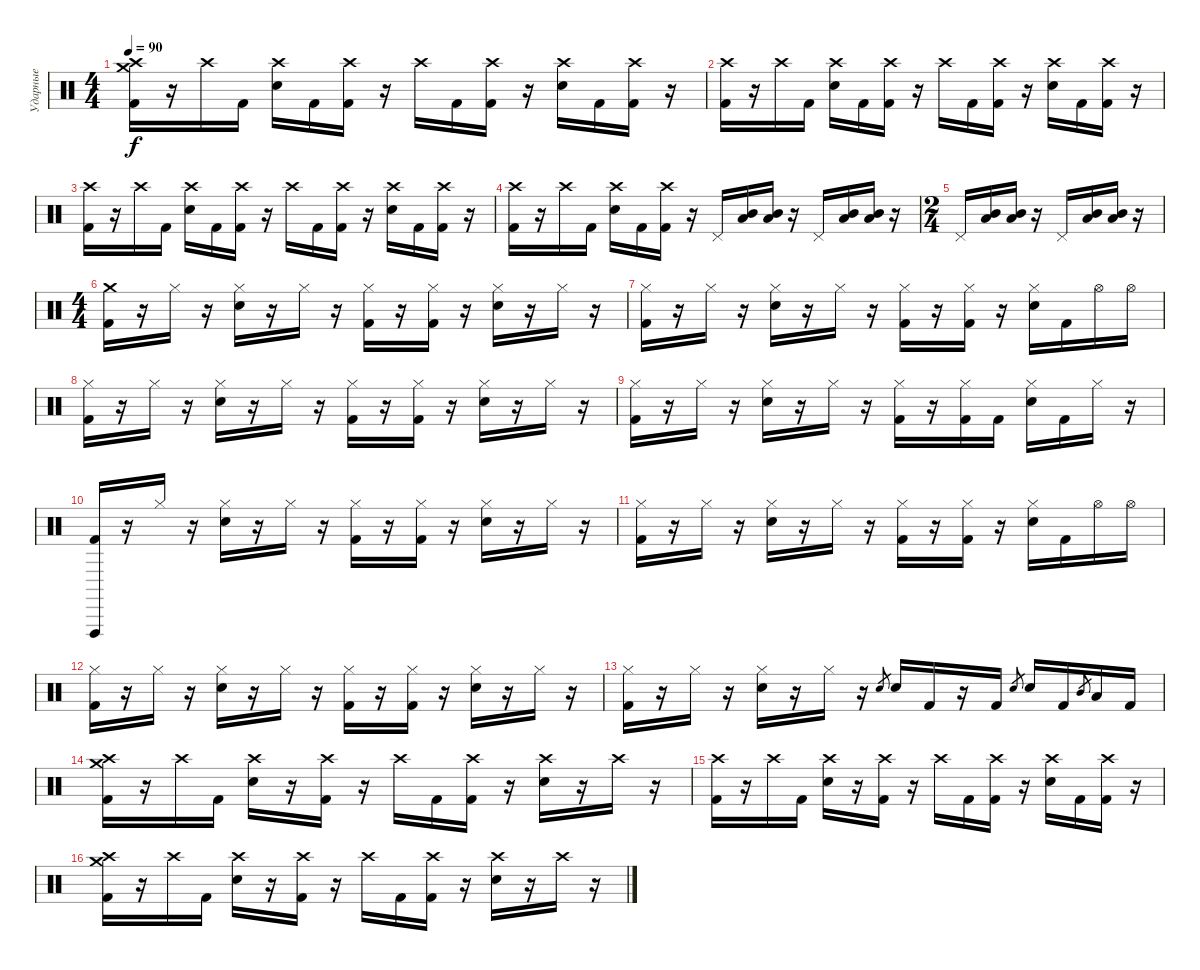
\track ("Ударные" "Ударные") {instrument percussion}
\staff {score}
\articulation defaults
\ts (4 4)
\tempo 90
\clef neutral
\ks c
("Crash high (hit)" "Crash medium (hit)" "Kick (hit) 2").16{dy f} r.16 "Crash high (hit)".16 "Kick (hit) 2".16 ("Crash high (hit)" "Electric Snare (hit)").16 "Kick (hit) 2".16 ("Crash high (hit)" "Kick (hit) 2").16 r.16 "Crash high (hit)".16 "Kick (hit) 2".16 ("Crash high (hit)" "Kick (hit) 2").16 r.16 ("Crash high (hit)" "Electric Snare (hit)").16 "Kick (hit) 2".16 ("Crash high (hit)" "Kick (hit) 2").16 r.16 |
("Crash high (hit)" "Kick (hit) 2").16 r.16 "Crash high (hit)".16 "Kick (hit) 2".16 ("Crash high (hit)" "Electric Snare (hit)").16 "Kick (hit) 2".16 ("Crash high (hit)" "Kick (hit) 2").16 r.16 "Crash high (hit)".16 "Kick (hit) 2".16 ("Crash high (hit)" "Kick (hit) 2").16 r.16 ("Crash high (hit)" "Electric Snare (hit)").16 "Kick (hit) 2".16 ("Crash high (hit)" "Kick (hit) 2").16 r.16 |
("Crash high (hit)" "Kick (hit) 2").16 r.16 "Crash high (hit)".16 "Kick (hit) 2".16 ("Crash high (hit)" "Electric Snare (hit)").16 "Kick (hit) 2".16 ("Crash high (hit)" "Kick (hit) 2").16 r.16 "Crash high (hit)".16 "Kick (hit) 2".16 ("Crash high (hit)" "Kick (hit) 2").16 r.16 ("Crash high (hit)" "Electric Snare (hit)").16 "Kick (hit) 2".16 ("Crash high (hit)" "Kick (hit) 2").16 r.16 |
("Crash high (hit)" "Kick (hit) 2").16 r.16 "Crash high (hit)".16 "Kick (hit) 2".16 ("Crash high (hit)" "Electric Snare (hit)").16 "Kick (hit) 2".16 ("Crash high (hit)" "Kick (hit) 2").16 r.16 "Pedal Hi-Hat (hit)".16 ("Mid Tom (hit)" "Low Tom (hit)").16 ("Mid Tom (hit)" "Low Tom (hit)").16 r.16 "Pedal Hi-Hat (hit)".16 ("Mid Tom (hit)" "Low Tom (hit)").16 ("Mid Tom (hit)" "Low Tom (hit)").16 r.16 |
\ts (2 4)
"Pedal Hi-Hat (hit)".16 ("Mid Tom (hit)" "Low Tom (hit)").16 ("Mid Tom (hit)" "Low Tom (hit)").16 r.16 "Pedal Hi-Hat (hit)".16 ("Mid Tom (hit)" "Low Tom (hit)").16 ("Mid Tom (hit)" "Low Tom (hit)").16 r.16 |
\ts (4 4)
("Crash medium (hit)" "Kick (hit) 2").16 r.16 "Hi-Hat (closed)".16 r.16 ("Hi-Hat (closed)" "Electric Snare (hit)").16 r.16 "Hi-Hat (closed)".16 r.16 ("Hi-Hat (closed)" "Kick (hit) 2").16 r.16 ("Hi-Hat (closed)" "Kick (hit) 2").16 r.16 ("Hi-Hat (closed)" "Electric Snare (hit)").16 r.16 "Hi-Hat (closed)".16 r.16 |
("Hi-Hat (closed)" "Kick (hit) 2").16 r.16 "Hi-Hat (closed)".16 r.16 ("Hi-Hat (closed)" "Electric Snare (hit)").16 r.16 "Hi-Hat (closed)".16 r.16 ("Hi-Hat (closed)" "Kick (hit) 2").16 r.16 ("Hi-Hat (closed)" "Kick (hit) 2").16 r.16 ("Hi-Hat (closed)" "Electric Snare (hit)").16 "Kick (hit) 2".16 "Hi-Hat (open)".16 "Hi-Hat (open)".16 |
("Hi-Hat (closed)" "Kick (hit) 2").16 r.16 "Hi-Hat (closed)".16 r.16 ("Hi-Hat (closed)" "Electric Snare (hit)").16 r.16 "Hi-Hat (closed)".16 r.16 ("Hi-Hat (closed)" "Kick (hit) 2").16 r.16 ("Hi-Hat (closed)" "Kick (hit) 2").16 r.16 ("Hi-Hat (closed)" "Electric Snare (hit)").16 r.16 "Hi-Hat (closed)".16 r.16 |
("Hi-Hat (closed)" "Kick (hit) 2").16 r.16 "Hi-Hat (closed)".16 r.16 ("Hi-Hat (closed)" "Electric Snare (hit)").16 r.16 "Hi-Hat (closed)".16 r.16 ("Hi-Hat (closed)" "Kick (hit) 2").16 r.16 ("Hi-Hat (closed)" "Kick (hit) 2").16 "Kick (hit) 2".16 ("Hi-Hat (closed)" "Electric Snare (hit)").16 "Kick (hit) 2".16 "Hi-Hat (closed)".16 r.16 |
("Vibraslap (hit)" "Kick (hit) 2").16 r.16 "Hi-Hat (closed)".16 r.16 ("Hi-Hat (closed)" "Electric Snare (hit)").16 r.16 "Hi-Hat (closed)".16 r.16 ("Hi-Hat (closed)" "Kick (hit) 2").16 r.16 ("Hi-Hat (closed)" "Kick (hit) 2").16 r.16 ("Hi-Hat (closed)" "Electric Snare (hit)").16 r.16 "Hi-Hat (closed)".16 r.16 |
("Hi-Hat (closed)" "Kick (hit) 2").16 r.16 "Hi-Hat (closed)".16 r.16 ("Hi-Hat (closed)" "Electric Snare (hit)").16 r.16 "Hi-Hat (closed)".16 r.16 ("Hi-Hat (closed)" "Kick (hit) 2").16 r.16 ("Hi-Hat (closed)" "Kick (hit) 2").16 r.16 ("Hi-Hat (closed)" "Electric Snare (hit)").16 "Kick (hit) 2".16 "Hi-Hat (open)".16 "Hi-Hat (open)".16 |
("Hi-Hat (closed)" "Kick (hit) 2").16 r.16 "Hi-Hat (closed)".16 r.16 ("Hi-Hat (closed)" "Electric Snare (hit)").16 r.16 "Hi-Hat (closed)".16 r.16 ("Hi-Hat (closed)" "Kick (hit) 2").16 r.16 ("Hi-Hat (closed)" "Kick (hit) 2").16 r.16 ("Hi-Hat (closed)" "Electric Snare (hit)").16 r.16 "Hi-Hat (closed)".16 r.16 |
("Hi-Hat (closed)" "Kick (hit) 2").16 r.16 "Hi-Hat (closed)".16 r.16 ("Hi-Hat (closed)" "Electric Snare (hit)").16 r.16 "Hi-Hat (closed)".16 r.16 "Electric Snare (hit)".8{gr} "Electric Snare (hit)".16 "Kick (hit) 2".16 r.16 "Kick (hit) 2".16 "Electric Snare (hit)".8{gr} "Electric Snare (hit)".16 "Kick (hit) 2".16 "Mid Tom (hit)".8{gr} "Low Tom (hit)".16 "Kick (hit) 2".16 |
("Crash high (hit)" "Crash medium (hit)" "Kick (hit) 2").16 r.16 "Crash high (hit)".16 "Kick (hit) 2".16 ("Crash high (hit)" "Electric Snare (hit)").16 r.16 ("Crash high (hit)" "Kick (hit) 2").16 r.16 "Crash high (hit)".16 "Kick (hit) 2".16 ("Crash high (hit)" "Kick (hit) 2").16 r.16 ("Crash high (hit)" "Electric Snare (hit)").16 r.16 "Crash high (hit)".16 r.16 |
("Crash high (hit)" "Kick (hit) 2").16 r.16 "Crash high (hit)".16 "Kick (hit) 2".16 ("Crash high (hit)" "Electric Snare (hit)").16 r.16 ("Crash high (hit)" "Kick (hit) 2").16 r.16 "Crash high (hit)".16 "Kick (hit) 2".16 ("Crash high (hit)" "Kick (hit) 2").16 r.16 ("Crash high (hit)" "Electric Snare (hit)").16 "Kick (hit) 2".16 ("Crash high (hit)" "Kick (hit) 2").16 r.16 |
("Crash high (hit)" "Crash medium (hit)" "Kick (hit) 2").16 r.16 "Crash high (hit)".16 "Kick (hit) 2".16 ("Crash high (hit)" "Electric Snare (hit)").16 r.16 ("Crash high (hit)" "Kick (hit) 2").16 r.16 "Crash high (hit)".16 "Kick (hit) 2".16 ("Crash high (hit)" "Kick (hit) 2").16 r.16 ("Crash high (hit)" "Electric Snare (hit)").16 r.16 "Crash high (hit)".16 r.16
